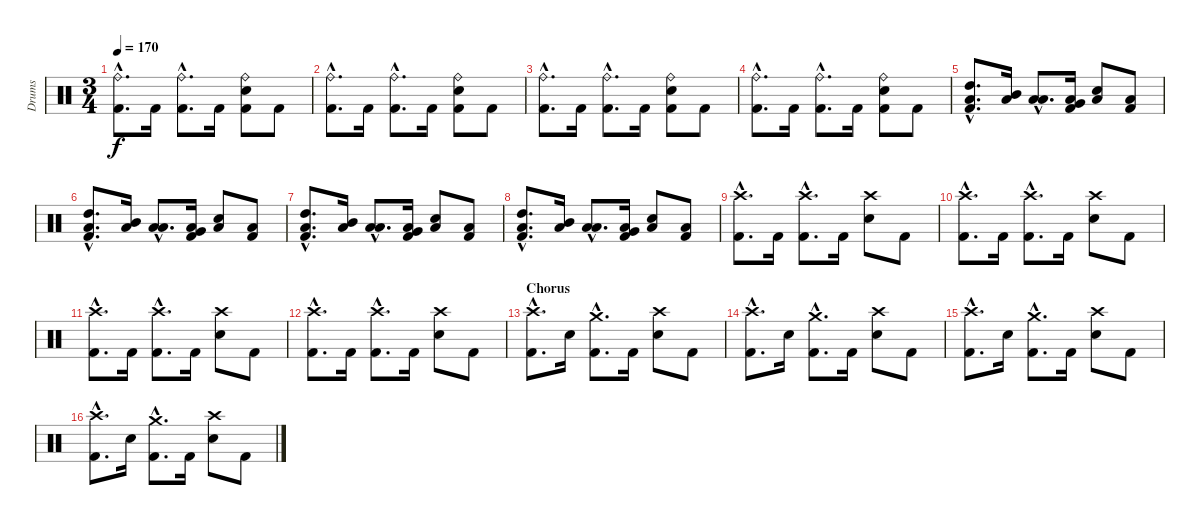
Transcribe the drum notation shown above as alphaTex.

\track ("Drums" "Drums") {instrument percussion}
\staff {score}
\articulation defaults
\ts (3 4)
\tempo 170
\clef neutral
\ks c
("Ride (bell)"{hac} "Kick (hit) 2"{hac}).8{d dy f} "Kick (hit) 2".16 ("Ride (bell)"{hac} "Kick (hit) 2"{hac}).8{d} "Kick (hit) 2".16 ("Ride (bell)" "Electric Snare (hit)" "Kick (hit) 2").8 "Kick (hit) 2".8 |
("Ride (bell)"{hac} "Kick (hit) 2"{hac}).8{d} "Kick (hit) 2".16 ("Ride (bell)"{hac} "Kick (hit) 2"{hac}).8{d} "Kick (hit) 2".16 ("Ride (bell)" "Electric Snare (hit)" "Kick (hit) 2").8 "Kick (hit) 2".8 |
("Ride (bell)"{hac} "Kick (hit) 2"{hac}).8{d} "Kick (hit) 2".16 ("Ride (bell)"{hac} "Kick (hit) 2"{hac}).8{d} "Kick (hit) 2".16 ("Ride (bell)" "Electric Snare (hit)" "Kick (hit) 2").8 "Kick (hit) 2".8 |
("Ride (bell)"{hac} "Kick (hit) 2"{hac}).8{d} "Kick (hit) 2".16 ("Ride (bell)"{hac} "Kick (hit) 2"{hac}).8{d} "Kick (hit) 2".16 ("Ride (bell)" "Electric Snare (hit)" "Kick (hit) 2").8 "Kick (hit) 2".8 |
("High Tom (hit)"{hac} "Low Floor Tom (hit)"{hac} "Kick (hit) 2"{hac}).8{d} ("Mid Tom (hit)" "Low Floor Tom (hit)").16 ("Low Tom (hit)"{hac} "Low Floor Tom (hit)"{hac}).8{d} ("Very Low Tom (hit)" "Low Floor Tom (hit)" "Kick (hit) 2").16 ("Electric Snare (hit)" "Low Floor Tom (hit)").8 ("Low Floor Tom (hit)" "Kick (hit) 2").8 |
("High Tom (hit)"{hac} "Low Floor Tom (hit)"{hac} "Kick (hit) 2"{hac}).8{d} ("Mid Tom (hit)" "Low Floor Tom (hit)").16 ("Low Tom (hit)"{hac} "Low Floor Tom (hit)"{hac}).8{d} ("Very Low Tom (hit)" "Low Floor Tom (hit)" "Kick (hit) 2").16 ("Electric Snare (hit)" "Low Floor Tom (hit)").8 ("Low Floor Tom (hit)" "Kick (hit) 2").8 |
("High Tom (hit)"{hac} "Low Floor Tom (hit)"{hac} "Kick (hit) 2"{hac}).8{d} ("Mid Tom (hit)" "Low Floor Tom (hit)").16 ("Low Tom (hit)"{hac} "Low Floor Tom (hit)"{hac}).8{d} ("Very Low Tom (hit)" "Low Floor Tom (hit)" "Kick (hit) 2").16 ("Electric Snare (hit)" "Low Floor Tom (hit)").8 ("Low Floor Tom (hit)" "Kick (hit) 2").8 |
("High Tom (hit)"{hac} "Low Floor Tom (hit)"{hac} "Kick (hit) 2"{hac}).8{d} ("Mid Tom (hit)" "Low Floor Tom (hit)").16 ("Low Tom (hit)"{hac} "Low Floor Tom (hit)"{hac}).8{d} ("Very Low Tom (hit)" "Low Floor Tom (hit)" "Kick (hit) 2").16 ("Electric Snare (hit)" "Low Floor Tom (hit)").8 ("Low Floor Tom (hit)" "Kick (hit) 2").8 |
("Crash high (hit)"{hac} "Kick (hit) 2"{hac}).8{d} "Kick (hit) 2".16 ("Crash high (hit)"{hac} "Kick (hit) 2"{hac}).8{d} "Kick (hit) 2".16 ("Crash high (hit)" "Electric Snare (hit)").8 "Kick (hit) 2".8 |
("Crash high (hit)"{hac} "Kick (hit) 2"{hac}).8{d} "Kick (hit) 2".16 ("Crash high (hit)"{hac} "Kick (hit) 2"{hac}).8{d} "Kick (hit) 2".16 ("Crash high (hit)" "Electric Snare (hit)").8 "Kick (hit) 2".8 |
("Crash high (hit)"{hac} "Kick (hit) 2"{hac}).8{d} "Kick (hit) 2".16 ("Crash high (hit)"{hac} "Kick (hit) 2"{hac}).8{d} "Kick (hit) 2".16 ("Crash high (hit)" "Electric Snare (hit)").8 "Kick (hit) 2".8 |
("Crash high (hit)"{hac} "Kick (hit) 2"{hac}).8{d} "Kick (hit) 2".16 ("Crash high (hit)"{hac} "Kick (hit) 2"{hac}).8{d} "Kick (hit) 2".16 ("Crash high (hit)" "Electric Snare (hit)").8 "Kick (hit) 2".8 |
\section ("" "Chorus")
("Crash high (hit)"{hac} "Kick (hit) 2"{hac}).8{d} "Electric Snare (hit)".16 ("Crash medium (hit)"{hac} "Kick (hit) 2"{hac}).8{d} "Kick (hit) 2".16 ("Crash high (hit)" "Electric Snare (hit)").8 "Kick (hit) 2".8 |
("Crash high (hit)"{hac} "Kick (hit) 2"{hac}).8{d} "Electric Snare (hit)".16 ("Crash medium (hit)"{hac} "Kick (hit) 2"{hac}).8{d} "Kick (hit) 2".16 ("Crash high (hit)" "Electric Snare (hit)").8 "Kick (hit) 2".8 |
("Crash high (hit)"{hac} "Kick (hit) 2"{hac}).8{d} "Electric Snare (hit)".16 ("Crash medium (hit)"{hac} "Kick (hit) 2"{hac}).8{d} "Kick (hit) 2".16 ("Crash high (hit)" "Electric Snare (hit)").8 "Kick (hit) 2".8 |
("Crash high (hit)"{hac} "Kick (hit) 2"{hac}).8{d} "Electric Snare (hit)".16 ("Crash medium (hit)"{hac} "Kick (hit) 2"{hac}).8{d} "Kick (hit) 2".16 ("Crash high (hit)" "Electric Snare (hit)").8 "Kick (hit) 2".8
